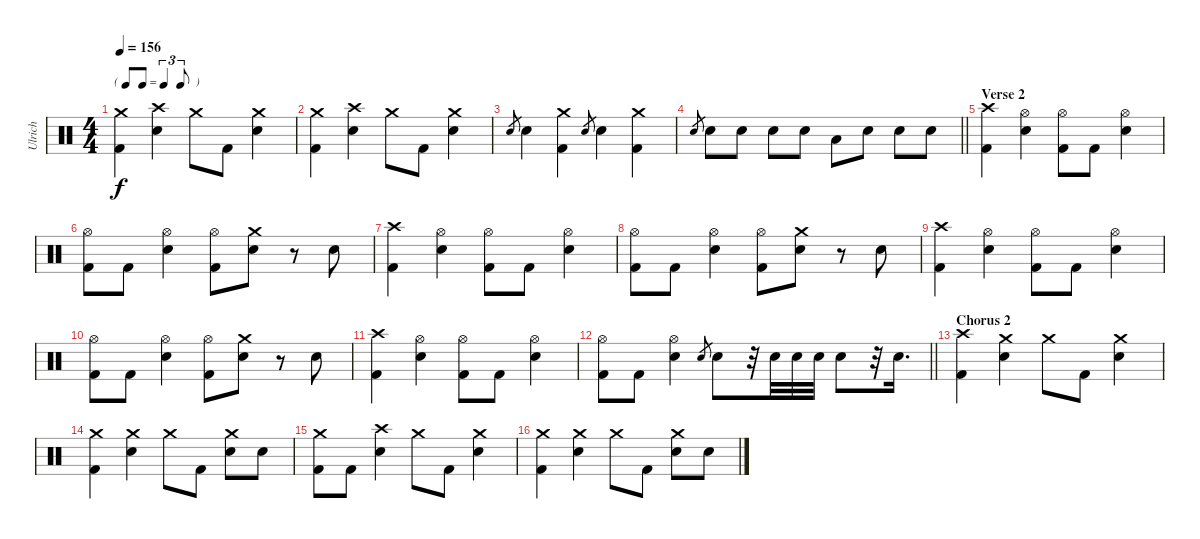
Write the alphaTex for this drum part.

\track ("Ulrich" "Ulrich") {instrument percussion}
\staff {score}
\articulation defaults
\ts (4 4)
\tf triplet8th
\tempo 156
\clef neutral
\ks c
("Crash medium (hit)" "Kick (hit) 2").4{dy f} ("Crash high (hit)" "Electric Snare (hit)").4 "Crash medium (hit)".8 "Kick (hit) 2".8 ("Crash medium (hit)" "Electric Snare (hit)").4 |
("Crash medium (hit)" "Kick (hit) 2").4 ("Crash high (hit)" "Electric Snare (hit)").4 "Crash medium (hit)".8 "Kick (hit) 2".8 ("Crash medium (hit)" "Electric Snare (hit)").4 |
"Electric Snare (hit)".8{gr} "Electric Snare (hit)".4 ("Crash medium (hit)" "Kick (hit) 2").4 "Electric Snare (hit)".8{gr} "Electric Snare (hit)".4 ("Crash medium (hit)" "Kick (hit) 2").4 |
\barLineRight lightlight "Electric Snare (hit)".8{gr} "Electric Snare (hit)".8 "Electric Snare (hit)".8 "Electric Snare (hit)".8 "Electric Snare (hit)".8 "Low Tom (hit)".8 "Electric Snare (hit)".8 "Electric Snare (hit)".8 "Electric Snare (hit)".8
|
\section ("" "Verse 2")
("Crash high (hit)" "Kick (hit) 2").4 ("Hi-Hat (open)" "Electric Snare (hit)").4 ("Hi-Hat (open)" "Kick (hit) 2").8 "Kick (hit) 2".8 ("Hi-Hat (open)" "Electric Snare (hit)").4 |
("Hi-Hat (open)" "Kick (hit) 2").8 "Kick (hit) 2".8 ("Hi-Hat (open)" "Electric Snare (hit)").4 ("Hi-Hat (open)" "Kick (hit) 2").8 ("Crash medium (hit)" "Electric Snare (hit)").8 r.8 "Electric Snare (hit)".8 |
("Crash high (hit)" "Kick (hit) 2").4 ("Hi-Hat (open)" "Electric Snare (hit)").4 ("Hi-Hat (open)" "Kick (hit) 2").8 "Kick (hit) 2".8 ("Hi-Hat (open)" "Electric Snare (hit)").4 |
("Hi-Hat (open)" "Kick (hit) 2").8 "Kick (hit) 2".8 ("Hi-Hat (open)" "Electric Snare (hit)").4 ("Hi-Hat (open)" "Kick (hit) 2").8 ("Crash medium (hit)" "Electric Snare (hit)").8 r.8 "Electric Snare (hit)".8 |
("Crash high (hit)" "Kick (hit) 2").4 ("Hi-Hat (open)" "Electric Snare (hit)").4 ("Hi-Hat (open)" "Kick (hit) 2").8 "Kick (hit) 2".8 ("Hi-Hat (open)" "Electric Snare (hit)").4 |
("Hi-Hat (open)" "Kick (hit) 2").8 "Kick (hit) 2".8 ("Hi-Hat (open)" "Electric Snare (hit)").4 ("Hi-Hat (open)" "Kick (hit) 2").8 ("Crash medium (hit)" "Electric Snare (hit)").8 r.8 "Electric Snare (hit)".8 |
("Crash high (hit)" "Kick (hit) 2").4 ("Hi-Hat (open)" "Electric Snare (hit)").4 ("Hi-Hat (open)" "Kick (hit) 2").8 "Kick (hit) 2".8 ("Hi-Hat (open)" "Electric Snare (hit)").4 |
\barLineRight lightlight
("Hi-Hat (open)" "Kick (hit) 2").8 "Kick (hit) 2".8 ("Hi-Hat (open)" "Electric Snare (hit)").4 "Electric Snare (hit)".8{gr} "Electric Snare (hit)".8 r.32 "Electric Snare (hit)".32 "Electric Snare (hit)".32 "Electric Snare (hit)".32 "Electric Snare (hit)".8 r.32 "Electric Snare (hit)".16{d} |
\section ("" "Chorus 2")
("Crash high (hit)" "Kick (hit) 2").4 ("Crash medium (hit)" "Electric Snare (hit)").4 "Crash medium (hit)".8 "Kick (hit) 2".8 ("Crash medium (hit)" "Electric Snare (hit)").4 |
("Crash medium (hit)" "Kick (hit) 2").4 ("Crash medium (hit)" "Electric Snare (hit)").4 "Crash medium (hit)".8 "Kick (hit) 2".8 ("Crash medium (hit)" "Electric Snare (hit)").8 "Electric Snare (hit)".8 |
("Crash medium (hit)" "Kick (hit) 2").8 "Kick (hit) 2".8 ("Crash high (hit)" "Electric Snare (hit)").4 "Crash medium (hit)".8 "Kick (hit) 2".8 ("Crash medium (hit)" "Electric Snare (hit)").4 |
("Crash medium (hit)" "Kick (hit) 2").4 ("Crash medium (hit)" "Electric Snare (hit)").4 "Crash medium (hit)".8 "Kick (hit) 2".8 ("Crash medium (hit)" "Electric Snare (hit)").8 "Electric Snare (hit)".8
